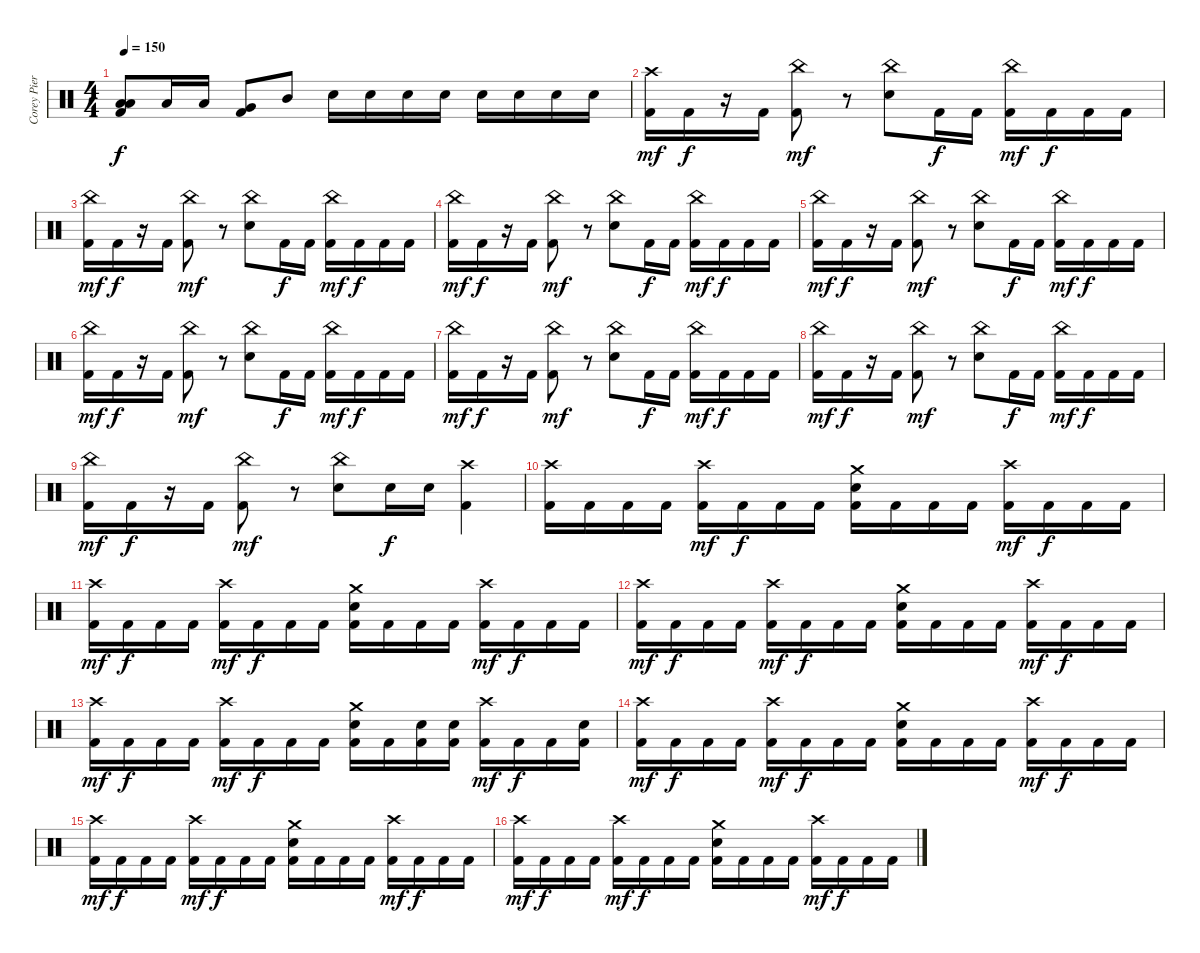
\track ("Corey Pierce" "Corey Pier") {instrument percussion}
\staff {score}
\articulation defaults
\ts (4 4)
\tempo 150
\clef neutral
\ks c
("Low Tom (hit)" "Low Floor Tom (hit)" "Kick (hit) 2").8{dy f} "Low Floor Tom (hit)".16 "Low Tom (hit)".16 ("Very Low Tom (hit)" "Kick (hit) 2").8 "Mid Tom (hit)".8 "Electric Snare (hit)".16 "Electric Snare (hit)".16 "Electric Snare (hit)".16 "Electric Snare (hit)".16 "Electric Snare (hit)".16 "Electric Snare (hit)".16 "Electric Snare (hit)".16 "Electric Snare (hit)".16 |
("Crash high (hit)" "Kick (hit) 2").16{dy mf} "Kick (hit) 2".16{dy f} r.16 "Kick (hit) 2".16 ("China (hit)" "Kick (hit) 2").8{dy mf} r.8 ("China (hit)" "Electric Snare (hit)").8 "Kick (hit) 2".16{dy f} "Kick (hit) 2".16 ("China (hit)" "Kick (hit) 2").16{dy mf} "Kick (hit) 2".16{dy f} "Kick (hit) 2".16 "Kick (hit) 2".16 |
("China (hit)" "Kick (hit) 2").16{dy mf} "Kick (hit) 2".16{dy f} r.16 "Kick (hit) 2".16 ("China (hit)" "Kick (hit) 2").8{dy mf} r.8 ("China (hit)" "Electric Snare (hit)").8 "Kick (hit) 2".16{dy f} "Kick (hit) 2".16 ("China (hit)" "Kick (hit) 2").16{dy mf} "Kick (hit) 2".16{dy f} "Kick (hit) 2".16 "Kick (hit) 2".16 |
("China (hit)" "Kick (hit) 2").16{dy mf} "Kick (hit) 2".16{dy f} r.16 "Kick (hit) 2".16 ("China (hit)" "Kick (hit) 2").8{dy mf} r.8 ("China (hit)" "Electric Snare (hit)").8 "Kick (hit) 2".16{dy f} "Kick (hit) 2".16 ("China (hit)" "Kick (hit) 2").16{dy mf} "Kick (hit) 2".16{dy f} "Kick (hit) 2".16 "Kick (hit) 2".16 |
("China (hit)" "Kick (hit) 2").16{dy mf} "Kick (hit) 2".16{dy f} r.16 "Kick (hit) 2".16 ("China (hit)" "Kick (hit) 2").8{dy mf} r.8 ("China (hit)" "Electric Snare (hit)").8 "Kick (hit) 2".16{dy f} "Kick (hit) 2".16 ("China (hit)" "Kick (hit) 2").16{dy mf} "Kick (hit) 2".16{dy f} "Kick (hit) 2".16 "Kick (hit) 2".16 |
("China (hit)" "Kick (hit) 2").16{dy mf} "Kick (hit) 2".16{dy f} r.16 "Kick (hit) 2".16 ("China (hit)" "Kick (hit) 2").8{dy mf} r.8 ("China (hit)" "Electric Snare (hit)").8 "Kick (hit) 2".16{dy f} "Kick (hit) 2".16 ("China (hit)" "Kick (hit) 2").16{dy mf} "Kick (hit) 2".16{dy f} "Kick (hit) 2".16 "Kick (hit) 2".16 |
("China (hit)" "Kick (hit) 2").16{dy mf} "Kick (hit) 2".16{dy f} r.16 "Kick (hit) 2".16 ("China (hit)" "Kick (hit) 2").8{dy mf} r.8 ("China (hit)" "Electric Snare (hit)").8 "Kick (hit) 2".16{dy f} "Kick (hit) 2".16 ("China (hit)" "Kick (hit) 2").16{dy mf} "Kick (hit) 2".16{dy f} "Kick (hit) 2".16 "Kick (hit) 2".16 |
("China (hit)" "Kick (hit) 2").16{dy mf} "Kick (hit) 2".16{dy f} r.16 "Kick (hit) 2".16 ("China (hit)" "Kick (hit) 2").8{dy mf} r.8 ("China (hit)" "Electric Snare (hit)").8 "Kick (hit) 2".16{dy f} "Kick (hit) 2".16 ("China (hit)" "Kick (hit) 2").16{dy mf} "Kick (hit) 2".16{dy f} "Kick (hit) 2".16 "Kick (hit) 2".16 |
("China (hit)" "Kick (hit) 2").16{dy mf} "Kick (hit) 2".16{dy f} r.16 "Kick (hit) 2".16 ("China (hit)" "Kick (hit) 2").8{dy mf} r.8 ("China (hit)" "Electric Snare (hit)").8 "Electric Snare (hit)".16{dy f} "Electric Snare (hit)".16 ("Crash high (hit)" "Kick (hit) 2").4 |
("Crash high (hit)" "Kick (hit) 2").16 "Kick (hit) 2".16 "Kick (hit) 2".16 "Kick (hit) 2".16 ("Crash high (hit)" "Kick (hit) 2").16{dy mf} "Kick (hit) 2".16{dy f} "Kick (hit) 2".16 "Kick (hit) 2".16 ("Crash medium (hit)" "Electric Snare (hit)" "Kick (hit) 2").16 "Kick (hit) 2".16 "Kick (hit) 2".16 "Kick (hit) 2".16 ("Crash high (hit)" "Kick (hit) 2").16{dy mf} "Kick (hit) 2".16{dy f} "Kick (hit) 2".16 "Kick (hit) 2".16 |
("Crash high (hit)" "Kick (hit) 2").16{dy mf} "Kick (hit) 2".16{dy f} "Kick (hit) 2".16 "Kick (hit) 2".16 ("Crash high (hit)" "Kick (hit) 2").16{dy mf} "Kick (hit) 2".16{dy f} "Kick (hit) 2".16 "Kick (hit) 2".16 ("Crash medium (hit)" "Electric Snare (hit)" "Kick (hit) 2").16 "Kick (hit) 2".16 "Kick (hit) 2".16 "Kick (hit) 2".16 ("Crash high (hit)" "Kick (hit) 2").16{dy mf} "Kick (hit) 2".16{dy f} "Kick (hit) 2".16 "Kick (hit) 2".16 |
("Crash high (hit)" "Kick (hit) 2").16{dy mf} "Kick (hit) 2".16{dy f} "Kick (hit) 2".16 "Kick (hit) 2".16 ("Crash high (hit)" "Kick (hit) 2").16{dy mf} "Kick (hit) 2".16{dy f} "Kick (hit) 2".16 "Kick (hit) 2".16 ("Crash medium (hit)" "Electric Snare (hit)" "Kick (hit) 2").16 "Kick (hit) 2".16 "Kick (hit) 2".16 "Kick (hit) 2".16 ("Crash high (hit)" "Kick (hit) 2").16{dy mf} "Kick (hit) 2".16{dy f} "Kick (hit) 2".16 "Kick (hit) 2".16 |
("Crash high (hit)" "Kick (hit) 2").16{dy mf} "Kick (hit) 2".16{dy f} "Kick (hit) 2".16 "Kick (hit) 2".16 ("Crash high (hit)" "Kick (hit) 2").16{dy mf} "Kick (hit) 2".16{dy f} "Kick (hit) 2".16 "Kick (hit) 2".16 ("Crash medium (hit)" "Electric Snare (hit)" "Kick (hit) 2").16 "Kick (hit) 2".16 ("Electric Snare (hit)" "Kick (hit) 2").16 ("Electric Snare (hit)" "Kick (hit) 2").16 ("Crash high (hit)" "Kick (hit) 2").16{dy mf} "Kick (hit) 2".16{dy f} "Kick (hit) 2".16 ("Electric Snare (hit)" "Kick (hit) 2").16 |
("Crash high (hit)" "Kick (hit) 2").16{dy mf} "Kick (hit) 2".16{dy f} "Kick (hit) 2".16 "Kick (hit) 2".16 ("Crash high (hit)" "Kick (hit) 2").16{dy mf} "Kick (hit) 2".16{dy f} "Kick (hit) 2".16 "Kick (hit) 2".16 ("Crash medium (hit)" "Electric Snare (hit)" "Kick (hit) 2").16 "Kick (hit) 2".16 "Kick (hit) 2".16 "Kick (hit) 2".16 ("Crash high (hit)" "Kick (hit) 2").16{dy mf} "Kick (hit) 2".16{dy f} "Kick (hit) 2".16 "Kick (hit) 2".16 |
("Crash high (hit)" "Kick (hit) 2").16{dy mf} "Kick (hit) 2".16{dy f} "Kick (hit) 2".16 "Kick (hit) 2".16 ("Crash high (hit)" "Kick (hit) 2").16{dy mf} "Kick (hit) 2".16{dy f} "Kick (hit) 2".16 "Kick (hit) 2".16 ("Crash medium (hit)" "Electric Snare (hit)" "Kick (hit) 2").16 "Kick (hit) 2".16 "Kick (hit) 2".16 "Kick (hit) 2".16 ("Crash high (hit)" "Kick (hit) 2").16{dy mf} "Kick (hit) 2".16{dy f} "Kick (hit) 2".16 "Kick (hit) 2".16 |
("Crash high (hit)" "Kick (hit) 2").16{dy mf} "Kick (hit) 2".16{dy f} "Kick (hit) 2".16 "Kick (hit) 2".16 ("Crash high (hit)" "Kick (hit) 2").16{dy mf} "Kick (hit) 2".16{dy f} "Kick (hit) 2".16 "Kick (hit) 2".16 ("Crash medium (hit)" "Electric Snare (hit)" "Kick (hit) 2").16 "Kick (hit) 2".16 "Kick (hit) 2".16 "Kick (hit) 2".16 ("Crash high (hit)" "Kick (hit) 2").16{dy mf} "Kick (hit) 2".16{dy f} "Kick (hit) 2".16 "Kick (hit) 2".16
